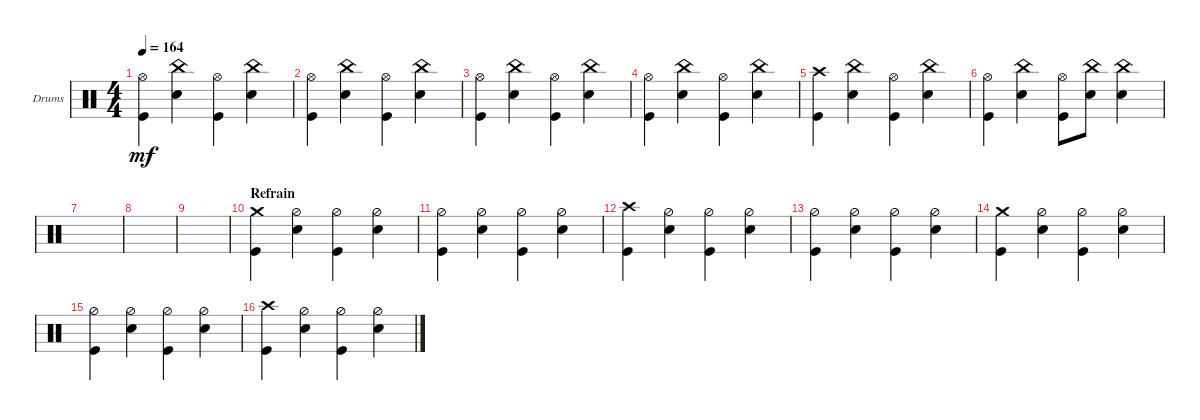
\defaultSystemsLayout 4
\bracketExtendMode groupsimilarinstruments
\firstSystemTrackNameOrientation horizontal
\otherSystemsTrackNameOrientation horizontal
\track ("Drumkit" "Drums") {instrument percussion}
\staff {score}
\articulation defaults
\ts (4 4)
\tempo 164
\clef neutral
\ks c
("Kick (hit)" "Hi-Hat (open)").4{dy mf} ("Snare (hit) 2" "China (hit)").4 ("Kick (hit)" "Hi-Hat (open)").4 ("Snare (hit) 2" "China (hit)").4 |
("Kick (hit)" "Hi-Hat (open)").4 ("Snare (hit) 2" "China (hit)").4 ("Kick (hit)" "Hi-Hat (open)").4 ("Snare (hit) 2" "China (hit)").4 |
("Kick (hit)" "Hi-Hat (open)").4 ("Snare (hit) 2" "China (hit)").4 ("Kick (hit)" "Hi-Hat (open)").4 ("Snare (hit) 2" "China (hit)").4 |
("Kick (hit)" "Hi-Hat (open)").4 ("Snare (hit) 2" "China (hit)").4 ("Kick (hit)" "Hi-Hat (open)").4 ("Snare (hit) 2" "China (hit)").4 |
("Kick (hit)" "Crash high (hit)").4 ("Snare (hit) 2" "China (hit)").4 ("Kick (hit)" "Hi-Hat (open)").4 ("Snare (hit) 2" "China (hit)").4 |
("Kick (hit)" "Hi-Hat (open)").4 ("Snare (hit) 2" "China (hit)").4 ("Kick (hit)" "Hi-Hat (open)").8 ("Snare (hit) 2" "China (hit)").8 ("Snare (hit) 2" "China (hit)").4 |
|
|
|
\section ("" "Refrain")
("Kick (hit)" "Crash medium (hit)").4 ("Snare (hit) 2" "Hi-Hat (half)").4 ("Kick (hit)" "Hi-Hat (half)").4 ("Snare (hit) 2" "Hi-Hat (half)").4 |
("Kick (hit)" "Hi-Hat (half)").4 ("Snare (hit) 2" "Hi-Hat (half)").4 ("Kick (hit)" "Hi-Hat (half)").4 ("Snare (hit) 2" "Hi-Hat (half)").4 |
("Kick (hit)" "Crash high (hit)").4 ("Snare (hit) 2" "Hi-Hat (half)").4 ("Kick (hit)" "Hi-Hat (half)").4 ("Snare (hit) 2" "Hi-Hat (half)").4 |
("Kick (hit)" "Hi-Hat (half)").4 ("Snare (hit) 2" "Hi-Hat (half)").4 ("Kick (hit)" "Hi-Hat (half)").4 ("Snare (hit) 2" "Hi-Hat (half)").4 |
("Kick (hit)" "Crash medium (hit)").4 ("Snare (hit) 2" "Hi-Hat (half)").4 ("Kick (hit)" "Hi-Hat (half)").4 ("Snare (hit) 2" "Hi-Hat (half)").4 |
("Kick (hit)" "Hi-Hat (half)").4 ("Snare (hit) 2" "Hi-Hat (half)").4 ("Kick (hit)" "Hi-Hat (half)").4 ("Snare (hit) 2" "Hi-Hat (half)").4 |
("Kick (hit)" "Crash high (hit)").4 ("Snare (hit) 2" "Hi-Hat (half)").4 ("Kick (hit)" "Hi-Hat (half)").4 ("Snare (hit) 2" "Hi-Hat (half)").4
